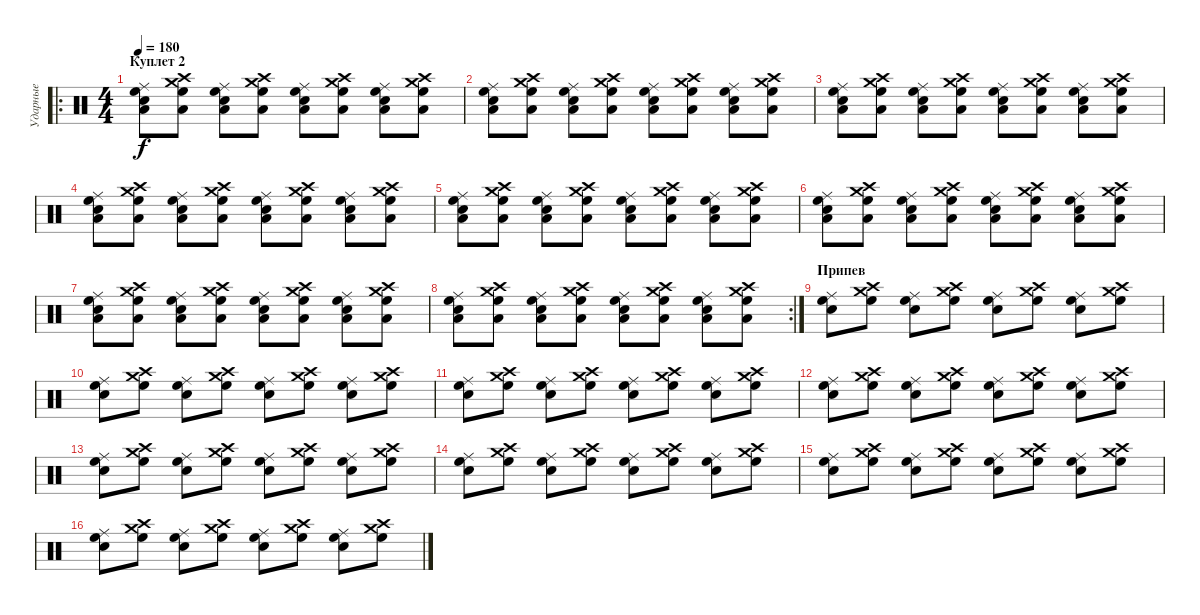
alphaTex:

\track ("Ударные" "Ударные") {instrument percussion}
\staff {score}
\articulation defaults
\ro
\ts (4 4)
\section ("" "Куплет 2")
\tempo 180
\clef neutral
\ks c
("Low Tom (hit)" "High Floor Tom (hit)" "Ride (middle)" "Snare (hit) 2").8{dy f} ("Low Tom (hit)" "High Floor Tom (hit)" "Crash high (hit)" "Crash medium (hit)").8 ("Low Tom (hit)" "High Floor Tom (hit)" "Ride (middle)" "Snare (hit) 2").8 ("Low Tom (hit)" "High Floor Tom (hit)" "Crash high (hit)" "Crash medium (hit)").8 ("Low Tom (hit)" "High Floor Tom (hit)" "Ride (middle)" "Snare (hit) 2").8 ("Low Tom (hit)" "High Floor Tom (hit)" "Crash high (hit)" "Crash medium (hit)").8 ("Low Tom (hit)" "High Floor Tom (hit)" "Ride (middle)" "Snare (hit) 2").8 ("Low Tom (hit)" "High Floor Tom (hit)" "Crash high (hit)" "Crash medium (hit)").8 |
("Low Tom (hit)" "High Floor Tom (hit)" "Ride (middle)" "Snare (hit) 2").8 ("Low Tom (hit)" "High Floor Tom (hit)" "Crash high (hit)" "Crash medium (hit)").8 ("Low Tom (hit)" "High Floor Tom (hit)" "Ride (middle)" "Snare (hit) 2").8 ("Low Tom (hit)" "High Floor Tom (hit)" "Crash high (hit)" "Crash medium (hit)").8 ("Low Tom (hit)" "High Floor Tom (hit)" "Ride (middle)" "Snare (hit) 2").8 ("Low Tom (hit)" "High Floor Tom (hit)" "Crash high (hit)" "Crash medium (hit)").8 ("Low Tom (hit)" "High Floor Tom (hit)" "Ride (middle)" "Snare (hit) 2").8 ("Low Tom (hit)" "High Floor Tom (hit)" "Crash high (hit)" "Crash medium (hit)").8 |
("Low Tom (hit)" "High Floor Tom (hit)" "Ride (middle)" "Snare (hit) 2").8 ("Low Tom (hit)" "High Floor Tom (hit)" "Crash high (hit)" "Crash medium (hit)").8 ("Low Tom (hit)" "High Floor Tom (hit)" "Ride (middle)" "Snare (hit) 2").8 ("Low Tom (hit)" "High Floor Tom (hit)" "Crash high (hit)" "Crash medium (hit)").8 ("Low Tom (hit)" "High Floor Tom (hit)" "Ride (middle)" "Snare (hit) 2").8 ("Low Tom (hit)" "High Floor Tom (hit)" "Crash high (hit)" "Crash medium (hit)").8 ("Low Tom (hit)" "High Floor Tom (hit)" "Ride (middle)" "Snare (hit) 2").8 ("Low Tom (hit)" "High Floor Tom (hit)" "Crash high (hit)" "Crash medium (hit)").8 |
("Low Tom (hit)" "High Floor Tom (hit)" "Ride (middle)" "Snare (hit) 2").8 ("Low Tom (hit)" "High Floor Tom (hit)" "Crash high (hit)" "Crash medium (hit)").8 ("Low Tom (hit)" "High Floor Tom (hit)" "Ride (middle)" "Snare (hit) 2").8 ("Low Tom (hit)" "High Floor Tom (hit)" "Crash high (hit)" "Crash medium (hit)").8 ("Low Tom (hit)" "High Floor Tom (hit)" "Ride (middle)" "Snare (hit) 2").8 ("Low Tom (hit)" "High Floor Tom (hit)" "Crash high (hit)" "Crash medium (hit)").8 ("Low Tom (hit)" "High Floor Tom (hit)" "Ride (middle)" "Snare (hit) 2").8 ("Low Tom (hit)" "High Floor Tom (hit)" "Crash high (hit)" "Crash medium (hit)").8 |
("Low Tom (hit)" "High Floor Tom (hit)" "Ride (middle)" "Snare (hit) 2").8 ("Low Tom (hit)" "High Floor Tom (hit)" "Crash high (hit)" "Crash medium (hit)").8 ("Low Tom (hit)" "High Floor Tom (hit)" "Ride (middle)" "Snare (hit) 2").8 ("Low Tom (hit)" "High Floor Tom (hit)" "Crash high (hit)" "Crash medium (hit)").8 ("Low Tom (hit)" "High Floor Tom (hit)" "Ride (middle)" "Snare (hit) 2").8 ("Low Tom (hit)" "High Floor Tom (hit)" "Crash high (hit)" "Crash medium (hit)").8 ("Low Tom (hit)" "High Floor Tom (hit)" "Ride (middle)" "Snare (hit) 2").8 ("Low Tom (hit)" "High Floor Tom (hit)" "Crash high (hit)" "Crash medium (hit)").8 |
("Low Tom (hit)" "High Floor Tom (hit)" "Ride (middle)" "Snare (hit) 2").8 ("Low Tom (hit)" "High Floor Tom (hit)" "Crash high (hit)" "Crash medium (hit)").8 ("Low Tom (hit)" "High Floor Tom (hit)" "Ride (middle)" "Snare (hit) 2").8 ("Low Tom (hit)" "High Floor Tom (hit)" "Crash high (hit)" "Crash medium (hit)").8 ("Low Tom (hit)" "High Floor Tom (hit)" "Ride (middle)" "Snare (hit) 2").8 ("Low Tom (hit)" "High Floor Tom (hit)" "Crash high (hit)" "Crash medium (hit)").8 ("Low Tom (hit)" "High Floor Tom (hit)" "Ride (middle)" "Snare (hit) 2").8 ("Low Tom (hit)" "High Floor Tom (hit)" "Crash high (hit)" "Crash medium (hit)").8 |
("Low Tom (hit)" "High Floor Tom (hit)" "Ride (middle)" "Snare (hit) 2").8 ("Low Tom (hit)" "High Floor Tom (hit)" "Crash high (hit)" "Crash medium (hit)").8 ("Low Tom (hit)" "High Floor Tom (hit)" "Ride (middle)" "Snare (hit) 2").8 ("Low Tom (hit)" "High Floor Tom (hit)" "Crash high (hit)" "Crash medium (hit)").8 ("Low Tom (hit)" "High Floor Tom (hit)" "Ride (middle)" "Snare (hit) 2").8 ("Low Tom (hit)" "High Floor Tom (hit)" "Crash high (hit)" "Crash medium (hit)").8 ("Low Tom (hit)" "High Floor Tom (hit)" "Ride (middle)" "Snare (hit) 2").8 ("Low Tom (hit)" "High Floor Tom (hit)" "Crash high (hit)" "Crash medium (hit)").8 |
\rc 2
("Low Tom (hit)" "High Floor Tom (hit)" "Ride (middle)" "Snare (hit) 2").8 ("Low Tom (hit)" "High Floor Tom (hit)" "Crash high (hit)" "Crash medium (hit)").8 ("Low Tom (hit)" "High Floor Tom (hit)" "Ride (middle)" "Snare (hit) 2").8 ("Low Tom (hit)" "High Floor Tom (hit)" "Crash high (hit)" "Crash medium (hit)").8 ("Low Tom (hit)" "High Floor Tom (hit)" "Ride (middle)" "Snare (hit) 2").8 ("Low Tom (hit)" "High Floor Tom (hit)" "Crash high (hit)" "Crash medium (hit)").8 ("Low Tom (hit)" "High Floor Tom (hit)" "Ride (middle)" "Snare (hit) 2").8 ("Low Tom (hit)" "High Floor Tom (hit)" "Crash high (hit)" "Crash medium (hit)").8 |
\section ("" "Припев")
("High Floor Tom (hit)" "Ride (middle)" "Snare (hit) 2").8 ("High Floor Tom (hit)" "Crash high (hit)" "Crash medium (hit)").8 ("High Floor Tom (hit)" "Ride (middle)" "Snare (hit) 2").8 ("High Floor Tom (hit)" "Crash high (hit)" "Crash medium (hit)").8 ("High Floor Tom (hit)" "Ride (middle)" "Snare (hit) 2").8 ("High Floor Tom (hit)" "Crash high (hit)" "Crash medium (hit)").8 ("High Floor Tom (hit)" "Ride (middle)" "Snare (hit) 2").8 ("High Floor Tom (hit)" "Crash high (hit)" "Crash medium (hit)").8 |
("High Floor Tom (hit)" "Ride (middle)" "Snare (hit) 2").8 ("High Floor Tom (hit)" "Crash high (hit)" "Crash medium (hit)").8 ("High Floor Tom (hit)" "Ride (middle)" "Snare (hit) 2").8 ("High Floor Tom (hit)" "Crash high (hit)" "Crash medium (hit)").8 ("High Floor Tom (hit)" "Ride (middle)" "Snare (hit) 2").8 ("High Floor Tom (hit)" "Crash high (hit)" "Crash medium (hit)").8 ("High Floor Tom (hit)" "Ride (middle)" "Snare (hit) 2").8 ("High Floor Tom (hit)" "Crash high (hit)" "Crash medium (hit)").8 |
("High Floor Tom (hit)" "Ride (middle)" "Snare (hit) 2").8 ("High Floor Tom (hit)" "Crash high (hit)" "Crash medium (hit)").8 ("High Floor Tom (hit)" "Ride (middle)" "Snare (hit) 2").8 ("High Floor Tom (hit)" "Crash high (hit)" "Crash medium (hit)").8 ("High Floor Tom (hit)" "Ride (middle)" "Snare (hit) 2").8 ("High Floor Tom (hit)" "Crash high (hit)" "Crash medium (hit)").8 ("High Floor Tom (hit)" "Ride (middle)" "Snare (hit) 2").8 ("High Floor Tom (hit)" "Crash high (hit)" "Crash medium (hit)").8 |
("High Floor Tom (hit)" "Ride (middle)" "Snare (hit) 2").8 ("High Floor Tom (hit)" "Crash high (hit)" "Crash medium (hit)").8 ("High Floor Tom (hit)" "Ride (middle)" "Snare (hit) 2").8 ("High Floor Tom (hit)" "Crash high (hit)" "Crash medium (hit)").8 ("High Floor Tom (hit)" "Ride (middle)" "Snare (hit) 2").8 ("High Floor Tom (hit)" "Crash high (hit)" "Crash medium (hit)").8 ("High Floor Tom (hit)" "Ride (middle)" "Snare (hit) 2").8 ("High Floor Tom (hit)" "Crash high (hit)" "Crash medium (hit)").8 |
("High Floor Tom (hit)" "Ride (middle)" "Snare (hit) 2").8 ("High Floor Tom (hit)" "Crash high (hit)" "Crash medium (hit)").8 ("High Floor Tom (hit)" "Ride (middle)" "Snare (hit) 2").8 ("High Floor Tom (hit)" "Crash high (hit)" "Crash medium (hit)").8 ("High Floor Tom (hit)" "Ride (middle)" "Snare (hit) 2").8 ("High Floor Tom (hit)" "Crash high (hit)" "Crash medium (hit)").8 ("High Floor Tom (hit)" "Ride (middle)" "Snare (hit) 2").8 ("High Floor Tom (hit)" "Crash high (hit)" "Crash medium (hit)").8 |
("High Floor Tom (hit)" "Ride (middle)" "Snare (hit) 2").8 ("High Floor Tom (hit)" "Crash high (hit)" "Crash medium (hit)").8 ("High Floor Tom (hit)" "Ride (middle)" "Snare (hit) 2").8 ("High Floor Tom (hit)" "Crash high (hit)" "Crash medium (hit)").8 ("High Floor Tom (hit)" "Ride (middle)" "Snare (hit) 2").8 ("High Floor Tom (hit)" "Crash high (hit)" "Crash medium (hit)").8 ("High Floor Tom (hit)" "Ride (middle)" "Snare (hit) 2").8 ("High Floor Tom (hit)" "Crash high (hit)" "Crash medium (hit)").8 |
("High Floor Tom (hit)" "Ride (middle)" "Snare (hit) 2").8 ("High Floor Tom (hit)" "Crash high (hit)" "Crash medium (hit)").8 ("High Floor Tom (hit)" "Ride (middle)" "Snare (hit) 2").8 ("High Floor Tom (hit)" "Crash high (hit)" "Crash medium (hit)").8 ("High Floor Tom (hit)" "Ride (middle)" "Snare (hit) 2").8 ("High Floor Tom (hit)" "Crash high (hit)" "Crash medium (hit)").8 ("High Floor Tom (hit)" "Ride (middle)" "Snare (hit) 2").8 ("High Floor Tom (hit)" "Crash high (hit)" "Crash medium (hit)").8 |
("High Floor Tom (hit)" "Ride (middle)" "Snare (hit) 2").8 ("High Floor Tom (hit)" "Crash high (hit)" "Crash medium (hit)").8 ("High Floor Tom (hit)" "Ride (middle)" "Snare (hit) 2").8 ("High Floor Tom (hit)" "Crash high (hit)" "Crash medium (hit)").8 ("High Floor Tom (hit)" "Ride (middle)" "Snare (hit) 2").8 ("High Floor Tom (hit)" "Crash high (hit)" "Crash medium (hit)").8 ("High Floor Tom (hit)" "Ride (middle)" "Snare (hit) 2").8 ("High Floor Tom (hit)" "Crash high (hit)" "Crash medium (hit)").8
